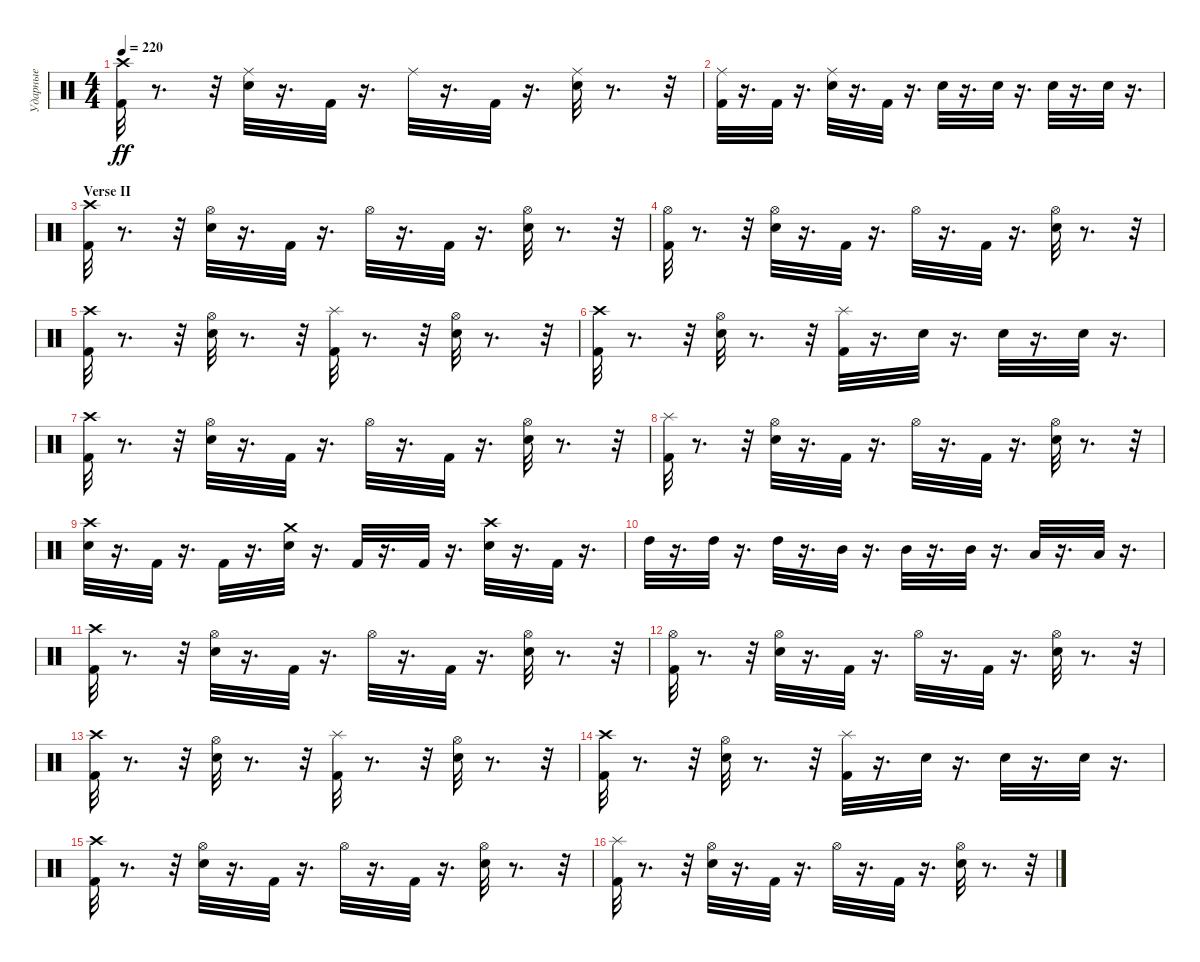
\track ("Ударные" "Ударные") {instrument percussion}
\staff {score}
\articulation defaults
\ts (4 4)
\tempo 220
\clef neutral
\ks c
("Kick (hit) 2" "Crash high (hit)").32{dy ff} r.8{d} r.32 ("Snare (hit) 2" "Ride (middle)").32 r.16{d} "Kick (hit) 2".32 r.16{d} "Ride (middle)".32 r.16{d} "Kick (hit) 2".32 r.16{d} ("Snare (hit) 2" "Ride (middle)").32 r.8{d} r.32 |
("Ride (middle)" "Kick (hit) 2").32 r.16{d} "Kick (hit) 2".32 r.16{d} ("Ride (middle)" "Snare (hit) 2").32 r.16{d} "Kick (hit) 2".32 r.16{d} "Snare (hit) 2".32 r.16{d} "Snare (hit) 2".32 r.16{d} "Snare (hit) 2".32 r.16{d} "Snare (hit) 2".32 r.16{d} |
\section ("" "Verse II")
("Crash high (hit)" "Kick (hit) 2").32 r.8{d} r.32 ("Hi-Hat (open)" "Snare (hit) 2").32 r.16{d} "Kick (hit) 2".32 r.16{d} "Hi-Hat (open)".32 r.16{d} "Kick (hit) 2".32 r.16{d} ("Hi-Hat (open)" "Snare (hit) 2").32 r.8{d} r.32 |
("Kick (hit) 2" "Hi-Hat (open)").32 r.8{d} r.32 ("Snare (hit) 2" "Hi-Hat (open)").32 r.16{d} "Kick (hit) 2".32 r.16{d} "Hi-Hat (open)".32 r.16{d} "Kick (hit) 2".32 r.16{d} ("Snare (hit) 2" "Hi-Hat (open)").32 r.8{d} r.32 |
("Crash high (hit)" "Kick (hit) 2").32 r.8{d} r.32 ("Hi-Hat (open)" "Snare (hit) 2").32 r.8{d} r.32 ("Splash (hit)" "Kick (hit) 2").32 r.8{d} r.32 ("Snare (hit) 2" "Hi-Hat (open)").32 r.8{d} r.32 |
("Crash high (hit)" "Kick (hit) 2").32 r.8{d} r.32 ("Hi-Hat (open)" "Snare (hit) 2").32 r.8{d} r.32 ("Splash (hit)" "Kick (hit) 2").32 r.16{d} "Snare (hit) 2".32 r.16{d} "Snare (hit) 2".32 r.16{d} "Snare (hit) 2".32 r.16{d} |
("Crash high (hit)" "Kick (hit) 2").32 r.8{d} r.32 ("Hi-Hat (open)" "Snare (hit) 2").32 r.16{d} "Kick (hit) 2".32 r.16{d} "Hi-Hat (open)".32 r.16{d} "Kick (hit) 2".32 r.16{d} ("Snare (hit) 2" "Hi-Hat (open)").32 r.8{d} r.32 |
("Kick (hit) 2" "Splash (hit)").32 r.8{d} r.32 ("Snare (hit) 2" "Hi-Hat (open)").32 r.16{d} "Kick (hit) 2".32 r.16{d} "Hi-Hat (open)".32 r.16{d} "Kick (hit) 2".32 r.16{d} ("Snare (hit) 2" "Hi-Hat (open)").32 r.8{d} r.32 |
("Crash high (hit)" "Snare (hit) 2").32 r.16{d} "Kick (hit) 2".32 r.16{d} "Kick (hit) 2".32 r.16{d} ("Crash medium (hit)" "Snare (hit) 2").32 r.16{d} "Kick (hit) 2".32 r.16{d} "Kick (hit) 2".32 r.16{d} ("Crash high (hit)" "Snare (hit) 2").32 r.16{d} "Kick (hit) 2".32 r.16{d} |
"High Tom (hit)".32 r.16{d} "High Tom (hit)".32 r.16{d} "High Tom (hit)".32 r.16{d} "Mid Tom (hit)".32 r.16{d} "Mid Tom (hit)".32 r.16{d} "Mid Tom (hit)".32 r.16{d} "Low Tom (hit)".32 r.16{d} "Low Tom (hit)".32 r.16{d} |
("Crash high (hit)" "Kick (hit) 2").32 r.8{d} r.32 ("Hi-Hat (open)" "Snare (hit) 2").32 r.16{d} "Kick (hit) 2".32 r.16{d} "Hi-Hat (open)".32 r.16{d} "Kick (hit) 2".32 r.16{d} ("Hi-Hat (open)" "Snare (hit) 2").32 r.8{d} r.32 |
("Kick (hit) 2" "Hi-Hat (open)").32 r.8{d} r.32 ("Snare (hit) 2" "Hi-Hat (open)").32 r.16{d} "Kick (hit) 2".32 r.16{d} "Hi-Hat (open)".32 r.16{d} "Kick (hit) 2".32 r.16{d} ("Snare (hit) 2" "Hi-Hat (open)").32 r.8{d} r.32 |
("Crash high (hit)" "Kick (hit) 2").32 r.8{d} r.32 ("Hi-Hat (open)" "Snare (hit) 2").32 r.8{d} r.32 ("Splash (hit)" "Kick (hit) 2").32 r.8{d} r.32 ("Snare (hit) 2" "Hi-Hat (open)").32 r.8{d} r.32 |
("Crash high (hit)" "Kick (hit) 2").32 r.8{d} r.32 ("Hi-Hat (open)" "Snare (hit) 2").32 r.8{d} r.32 ("Splash (hit)" "Kick (hit) 2").32 r.16{d} "Snare (hit) 2".32 r.16{d} "Snare (hit) 2".32 r.16{d} "Snare (hit) 2".32 r.16{d} |
("Crash high (hit)" "Kick (hit) 2").32 r.8{d} r.32 ("Hi-Hat (open)" "Snare (hit) 2").32 r.16{d} "Kick (hit) 2".32 r.16{d} "Hi-Hat (open)".32 r.16{d} "Kick (hit) 2".32 r.16{d} ("Snare (hit) 2" "Hi-Hat (open)").32 r.8{d} r.32 |
("Kick (hit) 2" "Splash (hit)").32 r.8{d} r.32 ("Snare (hit) 2" "Hi-Hat (open)").32 r.16{d} "Kick (hit) 2".32 r.16{d} "Hi-Hat (open)".32 r.16{d} "Kick (hit) 2".32 r.16{d} ("Snare (hit) 2" "Hi-Hat (open)").32 r.8{d} r.32
